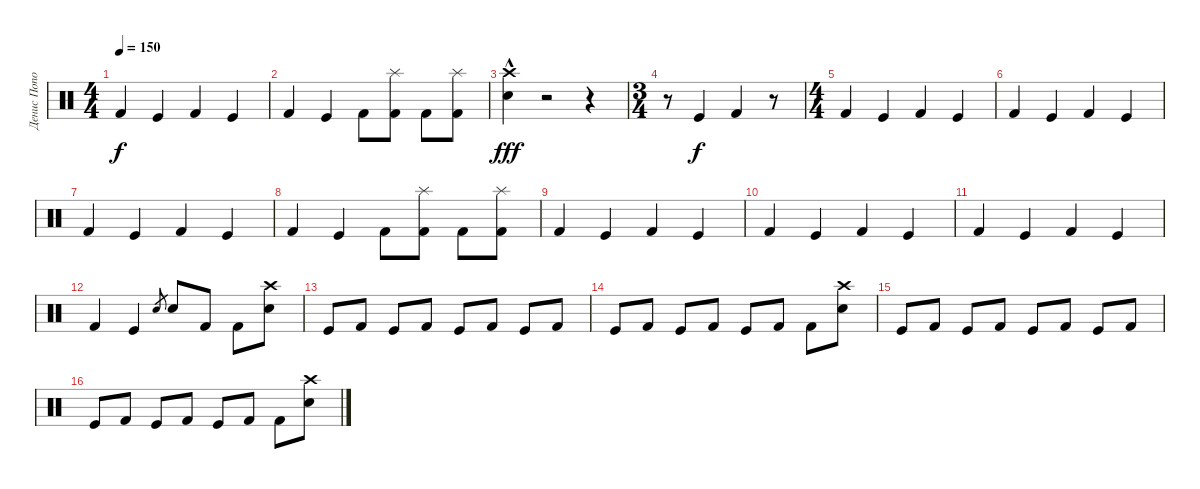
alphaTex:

\track ("Денис Попов" "Денис Попо") {instrument percussion}
\staff
\articulation defaults
\ts (4 4)
\tempo 150
\clef neutral
\ks c "Kick (hit) 2".4{dy f} "Kick (hit)".4 "Kick (hit) 2".4 "Kick (hit)".4
|
"Kick (hit) 2".4 "Kick (hit)".4 "Kick (hit) 2".8 ("Splash (hit)" "Kick (hit) 2").8 "Kick (hit) 2".8 ("Splash (hit)" "Kick (hit) 2").8 |
("Crash high (hit)"{hac} "Electric Snare (hit)").4{dy fff} r.2 r.4 |
\ts (3 4)
r.8 "Kick (hit)".4{dy f} "Kick (hit) 2".4 r.8 |
\ts (4 4)
"Kick (hit) 2".4 "Kick (hit)".4 "Kick (hit) 2".4 "Kick (hit)".4 |
"Kick (hit) 2".4 "Kick (hit)".4 "Kick (hit) 2".4 "Kick (hit)".4 |
"Kick (hit) 2".4 "Kick (hit)".4 "Kick (hit) 2".4 "Kick (hit)".4 |
"Kick (hit) 2".4 "Kick (hit)".4 "Kick (hit) 2".8 ("Splash (hit)" "Kick (hit) 2").8 "Kick (hit) 2".8 ("Splash (hit)" "Kick (hit) 2").8 |
"Kick (hit) 2".4 "Kick (hit)".4 "Kick (hit) 2".4 "Kick (hit)".4 |
"Kick (hit) 2".4 "Kick (hit)".4 "Kick (hit) 2".4 "Kick (hit)".4 |
"Kick (hit) 2".4 "Kick (hit)".4 "Kick (hit) 2".4 "Kick (hit)".4 |
"Kick (hit) 2".4 "Kick (hit)".4 "Electric Snare (hit)".8{gr} "Electric Snare (hit)".8 "Kick (hit) 2".8 "Kick (hit) 2".8 ("Crash high (hit)" "Snare (hit) 2").8 |
"Kick (hit)".8 "Kick (hit) 2".8 "Kick (hit)".8 "Kick (hit) 2".8 "Kick (hit)".8 "Kick (hit) 2".8 "Kick (hit)".8 "Kick (hit) 2".8 |
"Kick (hit)".8 "Kick (hit) 2".8 "Kick (hit)".8 "Kick (hit) 2".8 "Kick (hit)".8 "Kick (hit) 2".8 "Kick (hit) 2".8 ("Crash high (hit)" "Snare (hit) 2").8 |
"Kick (hit)".8 "Kick (hit) 2".8 "Kick (hit)".8 "Kick (hit) 2".8 "Kick (hit)".8 "Kick (hit) 2".8 "Kick (hit)".8 "Kick (hit) 2".8 |
"Kick (hit)".8 "Kick (hit) 2".8 "Kick (hit)".8 "Kick (hit) 2".8 "Kick (hit)".8 "Kick (hit) 2".8 "Kick (hit) 2".8 ("Crash high (hit)" "Snare (hit) 2").8
